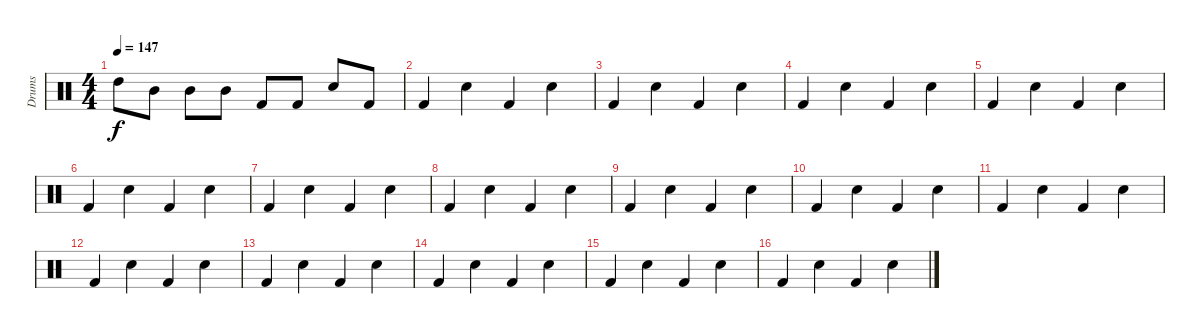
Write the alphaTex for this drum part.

\track ("Drums" "Drums") {instrument percussion}
\staff {score}
\articulation defaults
\ts (4 4)
\tempo 147
\clef neutral
\ks c "High Tom (hit)".8{dy f} "Mid Tom (hit)".8 "Mid Tom (hit)".8 "Mid Tom (hit)".8 "Kick (hit) 2".8 "Kick (hit) 2".8 "Snare (hit) 2".8 "Kick (hit) 2".8
|
"Kick (hit) 2".4 "Snare (hit) 2".4 "Kick (hit) 2".4 "Snare (hit) 2".4 |
"Kick (hit) 2".4 "Snare (hit) 2".4 "Kick (hit) 2".4 "Snare (hit) 2".4 |
"Kick (hit) 2".4 "Snare (hit) 2".4 "Kick (hit) 2".4 "Snare (hit) 2".4 |
"Kick (hit) 2".4 "Snare (hit) 2".4 "Kick (hit) 2".4 "Snare (hit) 2".4 |
"Kick (hit) 2".4 "Snare (hit) 2".4 "Kick (hit) 2".4 "Snare (hit) 2".4 |
"Kick (hit) 2".4 "Snare (hit) 2".4 "Kick (hit) 2".4 "Snare (hit) 2".4 |
"Kick (hit) 2".4 "Snare (hit) 2".4 "Kick (hit) 2".4 "Snare (hit) 2".4 |
"Kick (hit) 2".4 "Snare (hit) 2".4 "Kick (hit) 2".4 "Snare (hit) 2".4 |
"Kick (hit) 2".4 "Snare (hit) 2".4 "Kick (hit) 2".4 "Snare (hit) 2".4 |
"Kick (hit) 2".4 "Snare (hit) 2".4 "Kick (hit) 2".4 "Snare (hit) 2".4 |
"Kick (hit) 2".4 "Snare (hit) 2".4 "Kick (hit) 2".4 "Snare (hit) 2".4 |
"Kick (hit) 2".4 "Snare (hit) 2".4 "Kick (hit) 2".4 "Snare (hit) 2".4 |
"Kick (hit) 2".4 "Snare (hit) 2".4 "Kick (hit) 2".4 "Snare (hit) 2".4 |
"Kick (hit) 2".4 "Snare (hit) 2".4 "Kick (hit) 2".4 "Snare (hit) 2".4 |
"Kick (hit) 2".4 "Snare (hit) 2".4 "Kick (hit) 2".4 "Snare (hit) 2".4
